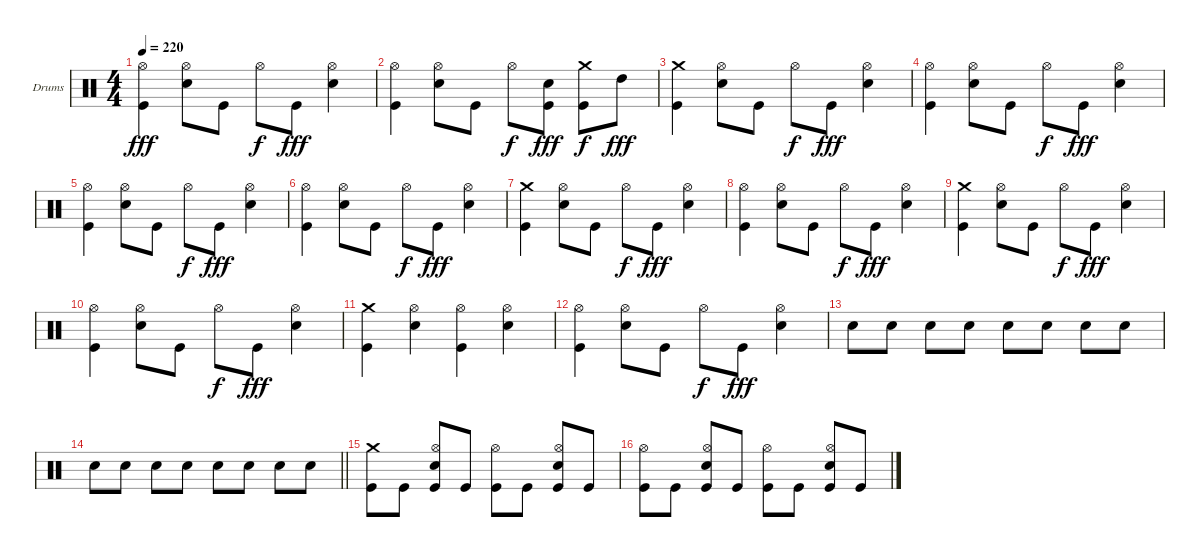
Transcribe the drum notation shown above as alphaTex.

\bracketExtendMode groupsimilarinstruments
\firstSystemTrackNameOrientation horizontal
\otherSystemsTrackNameOrientation horizontal
\track ("Stefan Schwarzmann" "Drums") {instrument percussion}
\staff {score}
\articulation defaults
\ts (4 4)
\tempo 220
\clef neutral
\ks c
("Kick (hit)" "Hi-Hat (open)").4{dy fff} ("Snare (hit) 2" "Hi-Hat (open)").8 "Kick (hit)".8 "Hi-Hat (open)".8{dy f} "Kick (hit)".8{dy fff} ("Snare (hit) 2" "Hi-Hat (open)").4 |
("Kick (hit)" "Hi-Hat (open)").4 ("Snare (hit) 2" "Hi-Hat (open)").8 "Kick (hit)".8 "Hi-Hat (open)".8{dy f} ("Kick (hit)" "Snare (hit) 2").8{dy fff} ("Kick (hit)" "Crash medium (hit)").8{dy f} "High Tom (hit)".8{dy fff} |
("Kick (hit)" "Crash medium (hit)").4 ("Snare (hit) 2" "Hi-Hat (open)").8 "Kick (hit)".8 "Hi-Hat (open)".8{dy f} "Kick (hit)".8{dy fff} ("Snare (hit) 2" "Hi-Hat (open)").4 |
("Kick (hit)" "Hi-Hat (open)").4 ("Snare (hit) 2" "Hi-Hat (open)").8 "Kick (hit)".8 "Hi-Hat (open)".8{dy f} "Kick (hit)".8{dy fff} ("Snare (hit) 2" "Hi-Hat (open)").4 |
("Kick (hit)" "Hi-Hat (open)").4 ("Snare (hit) 2" "Hi-Hat (open)").8 "Kick (hit)".8 "Hi-Hat (open)".8{dy f} "Kick (hit)".8{dy fff} ("Snare (hit) 2" "Hi-Hat (open)").4 |
("Kick (hit)" "Hi-Hat (open)").4 ("Snare (hit) 2" "Hi-Hat (open)").8 "Kick (hit)".8 "Hi-Hat (open)".8{dy f} "Kick (hit)".8{dy fff} ("Snare (hit) 2" "Hi-Hat (open)").4 |
("Kick (hit)" "Crash medium (hit)").4 ("Snare (hit) 2" "Hi-Hat (open)").8 "Kick (hit)".8 "Hi-Hat (open)".8{dy f} "Kick (hit)".8{dy fff} ("Snare (hit) 2" "Hi-Hat (open)").4 |
("Kick (hit)" "Hi-Hat (open)").4 ("Snare (hit) 2" "Hi-Hat (open)").8 "Kick (hit)".8 "Hi-Hat (open)".8{dy f} "Kick (hit)".8{dy fff} ("Snare (hit) 2" "Hi-Hat (open)").4 |
("Kick (hit)" "Crash medium (hit)").4 ("Snare (hit) 2" "Hi-Hat (open)").8 "Kick (hit)".8 "Hi-Hat (open)".8{dy f} "Kick (hit)".8{dy fff} ("Snare (hit) 2" "Hi-Hat (open)").4 |
("Kick (hit)" "Hi-Hat (open)").4 ("Snare (hit) 2" "Hi-Hat (open)").8 "Kick (hit)".8 "Hi-Hat (open)".8{dy f} "Kick (hit)".8{dy fff} ("Snare (hit) 2" "Hi-Hat (open)").4 |
("Kick (hit)" "Crash medium (hit)").4 ("Snare (hit) 2" "Hi-Hat (open)").4 ("Kick (hit)" "Hi-Hat (open)").4 ("Snare (hit) 2" "Hi-Hat (open)").4 |
("Kick (hit)" "Hi-Hat (open)").4 ("Snare (hit) 2" "Hi-Hat (open)").8 "Kick (hit)".8 "Hi-Hat (open)".8{dy f} "Kick (hit)".8{dy fff} ("Snare (hit) 2" "Hi-Hat (open)").4 |
"Snare (hit) 2".8 "Snare (hit) 2".8 "Snare (hit) 2".8 "Snare (hit) 2".8 "Snare (hit) 2".8 "Snare (hit) 2".8 "Snare (hit) 2".8 "Snare (hit) 2".8 |
\barLineRight lightlight "Snare (hit) 2".8 "Snare (hit) 2".8 "Snare (hit) 2".8 "Snare (hit) 2".8 "Snare (hit) 2".8 "Snare (hit) 2".8 "Snare (hit) 2".8 "Snare (hit) 2".8
|
("Kick (hit)" "Crash medium (hit)").8 "Kick (hit)".8 ("Kick (hit)" "Snare (hit) 2" "Hi-Hat (open)").8 "Kick (hit)".8 ("Kick (hit)" "Hi-Hat (open)").8 "Kick (hit)".8 ("Kick (hit)" "Snare (hit) 2" "Hi-Hat (open)").8 "Kick (hit)".8 |
("Kick (hit)" "Hi-Hat (open)").8 "Kick (hit)".8 ("Kick (hit)" "Snare (hit) 2" "Hi-Hat (open)").8 "Kick (hit)".8 ("Kick (hit)" "Hi-Hat (open)").8 "Kick (hit)".8 ("Kick (hit)" "Snare (hit) 2" "Hi-Hat (open)").8 "Kick (hit)".8
